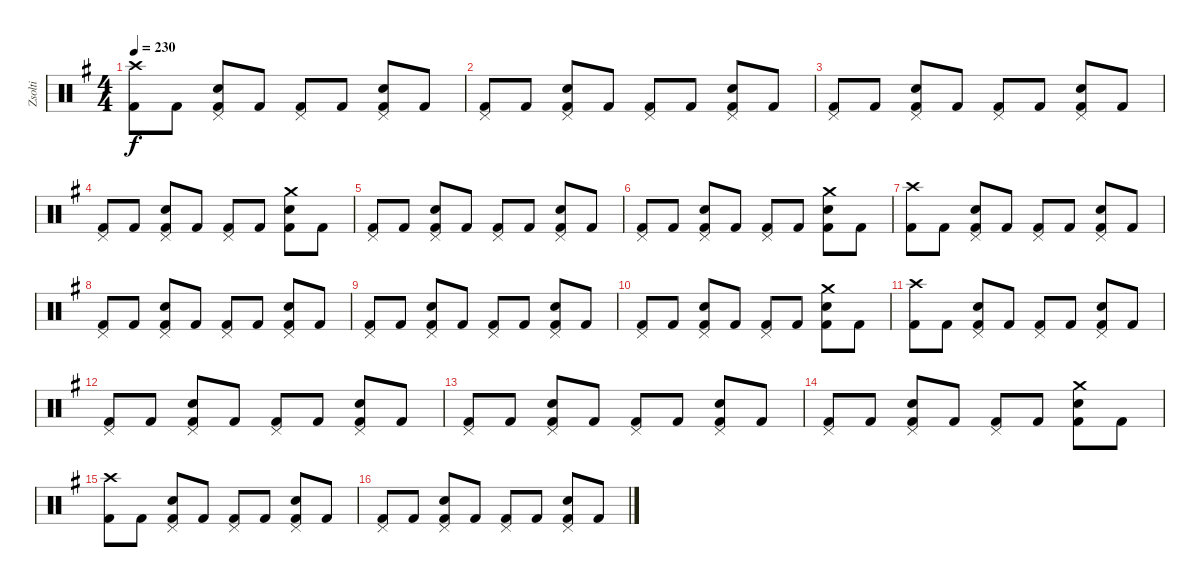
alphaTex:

\track ("Zsolti" "Zsolti") {instrument percussion}
\staff {score}
\articulation defaults
\ts (4 4)
\tempo 230
\clef neutral
\ks eminor
("Crash high (hit)" "Kick (hit) 2").8{dy f} "Kick (hit) 2".8 ("Pedal Hi-Hat (hit)" "Snare (hit) 2" "Kick (hit) 2").8 "Kick (hit) 2".8 ("Pedal Hi-Hat (hit)" "Kick (hit) 2").8 "Kick (hit) 2".8 ("Pedal Hi-Hat (hit)" "Snare (hit) 2" "Kick (hit) 2").8 "Kick (hit) 2".8 |
("Pedal Hi-Hat (hit)" "Kick (hit) 2").8 "Kick (hit) 2".8 ("Pedal Hi-Hat (hit)" "Snare (hit) 2" "Kick (hit) 2").8 "Kick (hit) 2".8 ("Pedal Hi-Hat (hit)" "Kick (hit) 2").8 "Kick (hit) 2".8 ("Pedal Hi-Hat (hit)" "Snare (hit) 2" "Kick (hit) 2").8 "Kick (hit) 2".8 |
("Pedal Hi-Hat (hit)" "Kick (hit) 2").8 "Kick (hit) 2".8 ("Pedal Hi-Hat (hit)" "Snare (hit) 2" "Kick (hit) 2").8 "Kick (hit) 2".8 ("Pedal Hi-Hat (hit)" "Kick (hit) 2").8 "Kick (hit) 2".8 ("Pedal Hi-Hat (hit)" "Snare (hit) 2" "Kick (hit) 2").8 "Kick (hit) 2".8 |
("Pedal Hi-Hat (hit)" "Kick (hit) 2").8 "Kick (hit) 2".8 ("Pedal Hi-Hat (hit)" "Snare (hit) 2" "Kick (hit) 2").8 "Kick (hit) 2".8 ("Pedal Hi-Hat (hit)" "Kick (hit) 2").8 "Kick (hit) 2".8 ("Crash medium (hit)" "Snare (hit) 2" "Kick (hit) 2").8 "Kick (hit) 2".8 |
("Pedal Hi-Hat (hit)" "Kick (hit) 2").8 "Kick (hit) 2".8 ("Pedal Hi-Hat (hit)" "Snare (hit) 2" "Kick (hit) 2").8 "Kick (hit) 2".8 ("Pedal Hi-Hat (hit)" "Kick (hit) 2").8 "Kick (hit) 2".8 ("Pedal Hi-Hat (hit)" "Snare (hit) 2" "Kick (hit) 2").8 "Kick (hit) 2".8 |
("Pedal Hi-Hat (hit)" "Kick (hit) 2").8 "Kick (hit) 2".8 ("Pedal Hi-Hat (hit)" "Snare (hit) 2" "Kick (hit) 2").8 "Kick (hit) 2".8 ("Pedal Hi-Hat (hit)" "Kick (hit) 2").8 "Kick (hit) 2".8 ("Crash medium (hit)" "Snare (hit) 2" "Kick (hit) 2").8 "Kick (hit) 2".8 |
("Crash high (hit)" "Kick (hit) 2").8 "Kick (hit) 2".8 ("Pedal Hi-Hat (hit)" "Snare (hit) 2" "Kick (hit) 2").8 "Kick (hit) 2".8 ("Pedal Hi-Hat (hit)" "Kick (hit) 2").8 "Kick (hit) 2".8 ("Pedal Hi-Hat (hit)" "Snare (hit) 2" "Kick (hit) 2").8 "Kick (hit) 2".8 |
("Pedal Hi-Hat (hit)" "Kick (hit) 2").8 "Kick (hit) 2".8 ("Pedal Hi-Hat (hit)" "Snare (hit) 2" "Kick (hit) 2").8 "Kick (hit) 2".8 ("Pedal Hi-Hat (hit)" "Kick (hit) 2").8 "Kick (hit) 2".8 ("Pedal Hi-Hat (hit)" "Snare (hit) 2" "Kick (hit) 2").8 "Kick (hit) 2".8 |
("Pedal Hi-Hat (hit)" "Kick (hit) 2").8 "Kick (hit) 2".8 ("Pedal Hi-Hat (hit)" "Snare (hit) 2" "Kick (hit) 2").8 "Kick (hit) 2".8 ("Pedal Hi-Hat (hit)" "Kick (hit) 2").8 "Kick (hit) 2".8 ("Pedal Hi-Hat (hit)" "Snare (hit) 2" "Kick (hit) 2").8 "Kick (hit) 2".8 |
("Pedal Hi-Hat (hit)" "Kick (hit) 2").8 "Kick (hit) 2".8 ("Pedal Hi-Hat (hit)" "Snare (hit) 2" "Kick (hit) 2").8 "Kick (hit) 2".8 ("Pedal Hi-Hat (hit)" "Kick (hit) 2").8 "Kick (hit) 2".8 ("Crash medium (hit)" "Snare (hit) 2" "Kick (hit) 2").8 "Kick (hit) 2".8 |
("Crash high (hit)" "Kick (hit) 2").8 "Kick (hit) 2".8 ("Pedal Hi-Hat (hit)" "Snare (hit) 2" "Kick (hit) 2").8 "Kick (hit) 2".8 ("Pedal Hi-Hat (hit)" "Kick (hit) 2").8 "Kick (hit) 2".8 ("Pedal Hi-Hat (hit)" "Snare (hit) 2" "Kick (hit) 2").8 "Kick (hit) 2".8 |
("Pedal Hi-Hat (hit)" "Kick (hit) 2").8 "Kick (hit) 2".8 ("Pedal Hi-Hat (hit)" "Snare (hit) 2" "Kick (hit) 2").8 "Kick (hit) 2".8 ("Pedal Hi-Hat (hit)" "Kick (hit) 2").8 "Kick (hit) 2".8 ("Pedal Hi-Hat (hit)" "Snare (hit) 2" "Kick (hit) 2").8 "Kick (hit) 2".8 |
("Pedal Hi-Hat (hit)" "Kick (hit) 2").8 "Kick (hit) 2".8 ("Pedal Hi-Hat (hit)" "Snare (hit) 2" "Kick (hit) 2").8 "Kick (hit) 2".8 ("Pedal Hi-Hat (hit)" "Kick (hit) 2").8 "Kick (hit) 2".8 ("Pedal Hi-Hat (hit)" "Snare (hit) 2" "Kick (hit) 2").8 "Kick (hit) 2".8 |
("Pedal Hi-Hat (hit)" "Kick (hit) 2").8 "Kick (hit) 2".8 ("Pedal Hi-Hat (hit)" "Snare (hit) 2" "Kick (hit) 2").8 "Kick (hit) 2".8 ("Pedal Hi-Hat (hit)" "Kick (hit) 2").8 "Kick (hit) 2".8 ("Crash medium (hit)" "Snare (hit) 2" "Kick (hit) 2").8 "Kick (hit) 2".8 |
("Crash high (hit)" "Kick (hit) 2").8 "Kick (hit) 2".8 ("Pedal Hi-Hat (hit)" "Snare (hit) 2" "Kick (hit) 2").8 "Kick (hit) 2".8 ("Pedal Hi-Hat (hit)" "Kick (hit) 2").8 "Kick (hit) 2".8 ("Pedal Hi-Hat (hit)" "Snare (hit) 2" "Kick (hit) 2").8 "Kick (hit) 2".8 |
("Pedal Hi-Hat (hit)" "Kick (hit) 2").8 "Kick (hit) 2".8 ("Pedal Hi-Hat (hit)" "Snare (hit) 2" "Kick (hit) 2").8 "Kick (hit) 2".8 ("Pedal Hi-Hat (hit)" "Kick (hit) 2").8 "Kick (hit) 2".8 ("Pedal Hi-Hat (hit)" "Snare (hit) 2" "Kick (hit) 2").8 "Kick (hit) 2".8
